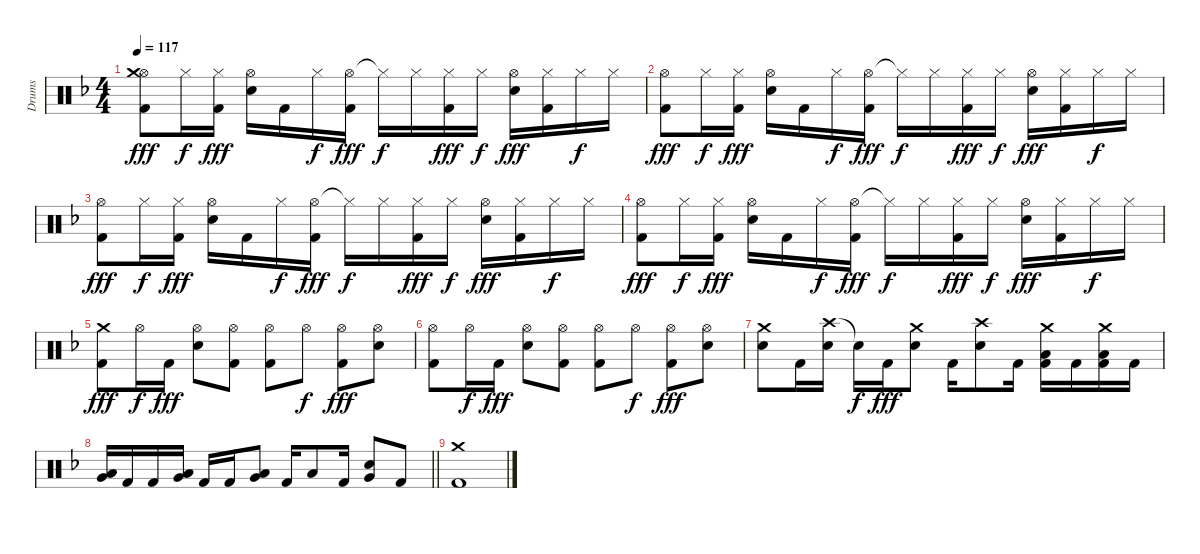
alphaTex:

\track ("Drums" "Drums") {instrument percussion}
\staff {score}
\articulation defaults
\ts (4 4)
\tempo 117
\clef neutral
\ks f
("Hi-Hat (open)" "Crash medium (hit)" "Kick (hit) 2").8{dy fff} "Hi-Hat (closed)".16{dy f} ("Hi-Hat (closed)" "Kick (hit) 2").16{dy fff} ("Hi-Hat (open)" "Snare (hit) 2").16 "Kick (hit) 2".16 "Hi-Hat (closed)".16{dy f} ("Hi-Hat (open)" "Kick (hit) 2").16{dy fff} "Hi-Hat (closed)"{t}.16{dy f} "Hi-Hat (closed)".16 ("Hi-Hat (closed)" "Kick (hit) 2").16{dy fff} "Hi-Hat (closed)".16{dy f} ("Hi-Hat (open)" "Snare (hit) 2").16{dy fff} ("Hi-Hat (closed)" "Kick (hit) 2").16 "Hi-Hat (closed)".16{dy f} "Hi-Hat (closed)".16 |
("Hi-Hat (open)" "Kick (hit) 2").8{dy fff} "Hi-Hat (closed)".16{dy f} ("Hi-Hat (closed)" "Kick (hit) 2").16{dy fff} ("Hi-Hat (open)" "Snare (hit) 2").16 "Kick (hit) 2".16 "Hi-Hat (closed)".16{dy f} ("Hi-Hat (open)" "Kick (hit) 2").16{dy fff} "Hi-Hat (closed)"{t}.16{dy f} "Hi-Hat (closed)".16 ("Hi-Hat (closed)" "Kick (hit) 2").16{dy fff} "Hi-Hat (closed)".16{dy f} ("Hi-Hat (open)" "Snare (hit) 2").16{dy fff} ("Hi-Hat (closed)" "Kick (hit) 2").16 "Hi-Hat (closed)".16{dy f} "Hi-Hat (closed)".16 |
("Hi-Hat (open)" "Kick (hit) 2").8{dy fff} "Hi-Hat (closed)".16{dy f} ("Hi-Hat (closed)" "Kick (hit) 2").16{dy fff} ("Hi-Hat (open)" "Snare (hit) 2").16 "Kick (hit) 2".16 "Hi-Hat (closed)".16{dy f} ("Hi-Hat (open)" "Kick (hit) 2").16{dy fff} "Hi-Hat (closed)"{t}.16{dy f} "Hi-Hat (closed)".16 ("Hi-Hat (closed)" "Kick (hit) 2").16{dy fff} "Hi-Hat (closed)".16{dy f} ("Hi-Hat (open)" "Snare (hit) 2").16{dy fff} ("Hi-Hat (closed)" "Kick (hit) 2").16 "Hi-Hat (closed)".16{dy f} "Hi-Hat (closed)".16 |
("Hi-Hat (open)" "Kick (hit) 2").8{dy fff} "Hi-Hat (closed)".16{dy f} ("Hi-Hat (closed)" "Kick (hit) 2").16{dy fff} ("Hi-Hat (open)" "Snare (hit) 2").16 "Kick (hit) 2".16 "Hi-Hat (closed)".16{dy f} ("Hi-Hat (open)" "Kick (hit) 2").16{dy fff} "Hi-Hat (closed)"{t}.16{dy f} "Hi-Hat (closed)".16 ("Hi-Hat (closed)" "Kick (hit) 2").16{dy fff} "Hi-Hat (closed)".16{dy f} ("Hi-Hat (open)" "Snare (hit) 2").16{dy fff} ("Hi-Hat (closed)" "Kick (hit) 2").16 "Hi-Hat (closed)".16{dy f} "Hi-Hat (closed)".16 |
("Crash medium (hit)" "Kick (hit) 2").8{dy fff} "Hi-Hat (open)".16{dy f} "Kick (hit) 2".16{dy fff} ("Hi-Hat (open)" "Snare (hit) 2").8 ("Hi-Hat (open)" "Kick (hit) 2").8 ("Hi-Hat (open)" "Kick (hit) 2").8 "Hi-Hat (open)".8{dy f} ("Hi-Hat (open)" "Kick (hit) 2").8{dy fff} ("Hi-Hat (open)" "Snare (hit) 2").8 |
("Hi-Hat (open)" "Kick (hit) 2").8 "Hi-Hat (open)".16{dy f} "Kick (hit) 2".16{dy fff} ("Hi-Hat (open)" "Snare (hit) 2").8 ("Hi-Hat (open)" "Kick (hit) 2").8 ("Hi-Hat (open)" "Kick (hit) 2").8 "Hi-Hat (open)".8{dy f} ("Hi-Hat (open)" "Kick (hit) 2").8{dy fff} ("Hi-Hat (open)" "Snare (hit) 2").8 |
("Crash medium (hit)" "Snare (hit) 2").8 "Kick (hit) 2".16 ("Crash high (hit)" "Snare (hit) 2").16 "Snare (hit)"{t}.16{dy f} "Kick (hit) 2".16{dy fff} ("Crash medium (hit)" "Snare (hit) 2").8 "Kick (hit) 2".16 ("Crash high (hit)" "Snare (hit) 2").8 "Kick (hit) 2".16 ("Crash medium (hit)" "Low Floor Tom (hit)" "Kick (hit) 2").16 "Kick (hit) 2".16 ("Crash medium (hit)" "Low Floor Tom (hit)" "Kick (hit) 2").16 "Kick (hit) 2".16 |
\barLineRight lightlight
("Low Tom (hit)" "Very Low Tom (hit)").16 "Kick (hit) 2".16 "Kick (hit) 2".16 ("Low Tom (hit)" "Very Low Tom (hit)").16 "Kick (hit) 2".16 "Kick (hit) 2".16 ("Low Tom (hit)" "Very Low Tom (hit)").8 "Kick (hit) 2".16 "Low Floor Tom (hit)".8 "Kick (hit) 2".16 ("Very Low Tom (hit)" "Snare (hit) 2").8 "Kick (hit) 2".8 |
("Crash medium (hit)" "Kick (hit) 2").1
